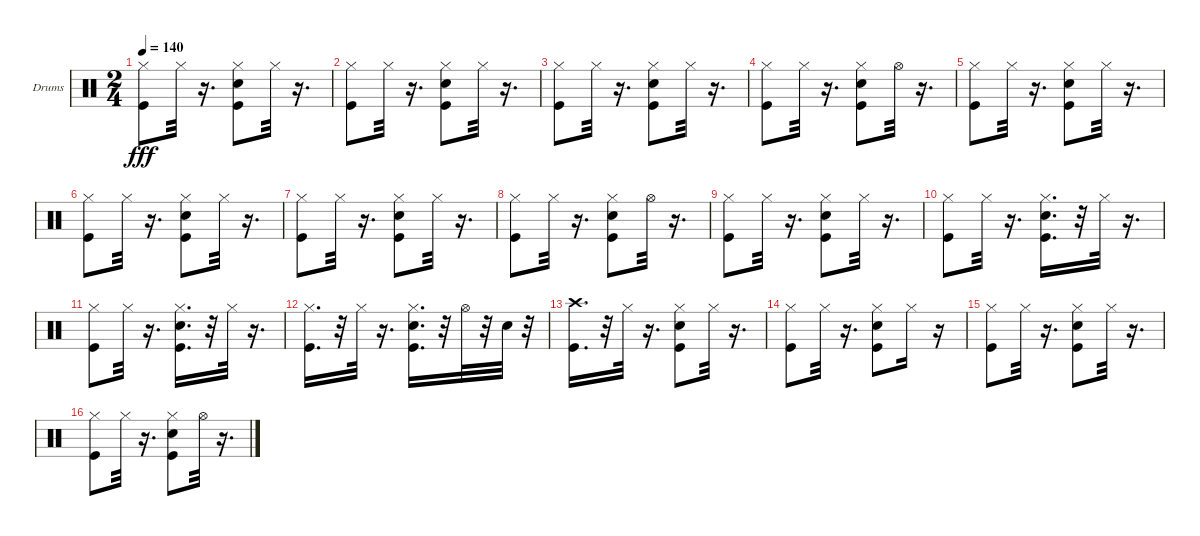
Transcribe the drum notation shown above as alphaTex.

\bracketExtendMode groupsimilarinstruments
\firstSystemTrackNameOrientation horizontal
\otherSystemsTrackNameOrientation horizontal
\track ("Ударные" "Drums") {instrument percussion}
\staff {score}
\articulation defaults
\ts (2 4)
\tempo 140
\clef neutral
\ks c
("Kick (hit)" "Hi-Hat (closed)").8{dy fff} "Hi-Hat (closed)".32 r.16{d} ("Snare (hit) 2" "Kick (hit)" "Hi-Hat (closed)").8 "Hi-Hat (closed)".32 r.16{d} |
("Kick (hit)" "Hi-Hat (closed)").8 "Hi-Hat (closed)".32 r.16{d} ("Snare (hit) 2" "Kick (hit)" "Hi-Hat (closed)").8 "Hi-Hat (closed)".32 r.16{d} |
("Kick (hit)" "Hi-Hat (closed)").8 "Hi-Hat (closed)".32 r.16{d} ("Snare (hit) 2" "Kick (hit)" "Hi-Hat (closed)").8 "Hi-Hat (closed)".32 r.16{d} |
("Kick (hit)" "Hi-Hat (closed)").8 "Hi-Hat (closed)".32 r.16{d} ("Snare (hit) 2" "Kick (hit)" "Hi-Hat (closed)").8 "Hi-Hat (open)".32 r.16{d} |
("Kick (hit)" "Hi-Hat (closed)").8 "Hi-Hat (closed)".32 r.16{d} ("Snare (hit) 2" "Kick (hit)" "Hi-Hat (closed)").8 "Hi-Hat (closed)".32 r.16{d} |
("Kick (hit)" "Hi-Hat (closed)").8 "Hi-Hat (closed)".32 r.16{d} ("Snare (hit) 2" "Kick (hit)" "Hi-Hat (closed)").8 "Hi-Hat (closed)".32 r.16{d} |
("Kick (hit)" "Hi-Hat (closed)").8 "Hi-Hat (closed)".32 r.16{d} ("Kick (hit)" "Hi-Hat (closed)" "Snare (hit) 2").8 "Hi-Hat (closed)".32 r.16{d} |
("Kick (hit)" "Hi-Hat (closed)").8 "Hi-Hat (closed)".32 r.16{d} ("Snare (hit) 2" "Kick (hit)" "Hi-Hat (closed)").8 "Hi-Hat (open)".32 r.16{d} |
("Kick (hit)" "Hi-Hat (closed)").8 "Hi-Hat (closed)".32 r.16{d} ("Snare (hit) 2" "Kick (hit)" "Hi-Hat (closed)").8 "Hi-Hat (closed)".32 r.16{d} |
("Kick (hit)" "Hi-Hat (closed)").8 "Hi-Hat (closed)".32 r.16{d} ("Snare (hit) 2" "Kick (hit)" "Hi-Hat (closed)").16{d} r.32 "Hi-Hat (closed)".32 r.16{d} |
("Kick (hit)" "Hi-Hat (closed)").8 "Hi-Hat (closed)".32 r.16{d} ("Snare (hit) 2" "Kick (hit)" "Hi-Hat (closed)").16{d} r.32 "Hi-Hat (closed)".32 r.16{d} |
("Kick (hit)" "Hi-Hat (closed)").16{d} r.32 "Hi-Hat (closed)".32 r.16{d} ("Snare (hit) 2" "Kick (hit)" "Hi-Hat (closed)").16{d} r.32 "Hi-Hat (open)".32 r.32 "Snare (hit) 2".32 r.32 |
("Kick (hit)" "Crash high (hit)").16{d} r.32 "Hi-Hat (closed)".32 r.16{d} ("Hi-Hat (closed)" "Kick (hit)" "Snare (hit) 2").8 "Hi-Hat (closed)".32 r.16{d} |
("Kick (hit)" "Hi-Hat (closed)").8 "Hi-Hat (closed)".32 r.16{d} ("Snare (hit) 2" "Kick (hit)" "Hi-Hat (closed)").8 "Hi-Hat (closed)".16 r.16 |
("Kick (hit)" "Hi-Hat (closed)").8 "Hi-Hat (closed)".32 r.16{d} ("Snare (hit) 2" "Kick (hit)" "Hi-Hat (closed)").8 "Hi-Hat (closed)".32 r.16{d} |
("Kick (hit)" "Hi-Hat (closed)").8 "Hi-Hat (closed)".32 r.16{d} ("Kick (hit)" "Snare (hit) 2" "Hi-Hat (closed)").8 "Hi-Hat (open)".32 r.16{d}
